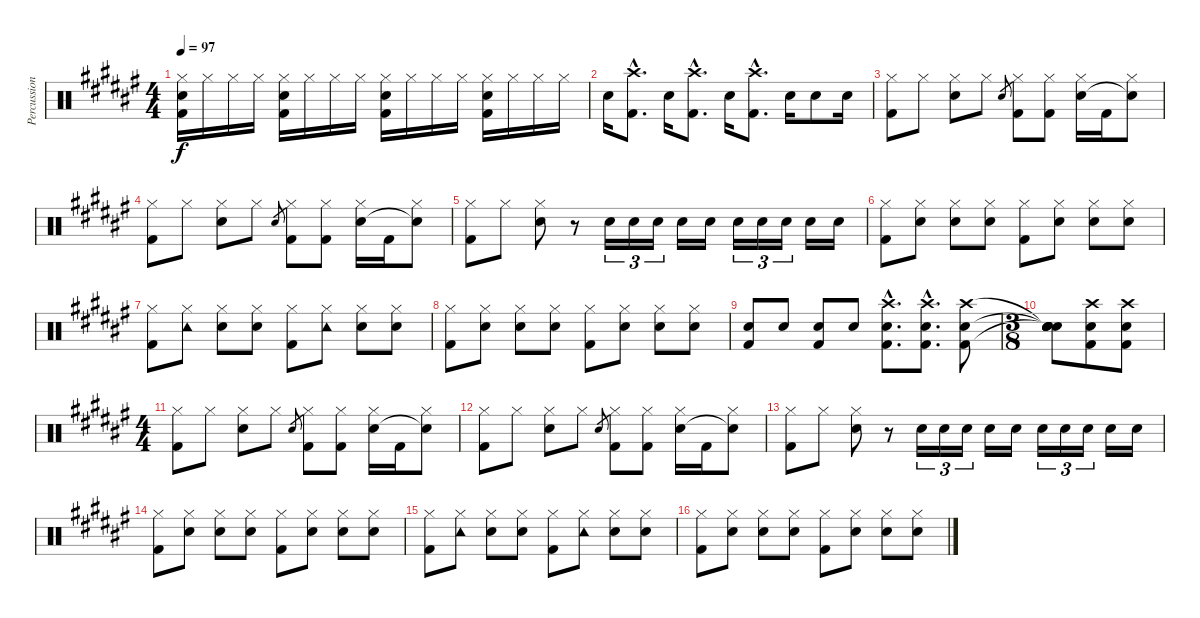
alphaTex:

\track ("Percussion (John Bonham)" "Percussion") {instrument percussion}
\staff {score}
\articulation defaults
\ts (4 4)
\tempo 97
\clef neutral
\ks f#
("Hi-Hat (closed)" "Snare (hit) 2" "Kick (hit) 2").16{dy f} "Hi-Hat (closed)".16 "Hi-Hat (closed)".16 "Hi-Hat (closed)".16 ("Hi-Hat (closed)" "Snare (hit) 2" "Kick (hit) 2").16 "Hi-Hat (closed)".16 "Hi-Hat (closed)".16 "Hi-Hat (closed)".16 ("Hi-Hat (closed)" "Snare (hit) 2" "Kick (hit) 2").16 "Hi-Hat (closed)".16 "Hi-Hat (closed)".16 "Hi-Hat (closed)".16 ("Hi-Hat (closed)" "Snare (hit) 2" "Kick (hit) 2").16 "Hi-Hat (closed)".16 "Hi-Hat (closed)".16 "Hi-Hat (closed)".16 |
"Snare (hit) 2".16 ("Crash high (hit)"{hac} "Kick (hit) 2"{hac}).8{d} "Snare (hit) 2".16 ("Crash high (hit)"{hac} "Kick (hit) 2"{hac}).8{d} "Snare (hit) 2".16 ("Crash high (hit)"{hac} "Kick (hit) 2"{hac}).8{d} "Snare (hit) 2".16 "Snare (hit) 2".8 "Snare (hit) 2".16 |
("Hi-Hat (closed)" "Kick (hit) 2").8 "Hi-Hat (closed)".8 ("Hi-Hat (closed)" "Snare (hit) 2").8 "Hi-Hat (closed)".8 "Snare (hit) 2".8{gr} ("Hi-Hat (closed)" "Kick (hit) 2").8 ("Hi-Hat (closed)" "Kick (hit) 2").8 ("Hi-Hat (closed)" "Snare (hit) 2").16 "Kick (hit) 2".16 ("Hi-Hat (closed)" "Snare (hit)"{t}).8 |
("Hi-Hat (closed)" "Kick (hit) 2").8 "Hi-Hat (closed)".8 ("Hi-Hat (closed)" "Snare (hit) 2").8 "Hi-Hat (closed)".8 "Snare (hit) 2".8{gr} ("Hi-Hat (closed)" "Kick (hit) 2").8 ("Hi-Hat (closed)" "Kick (hit) 2").8 ("Hi-Hat (closed)" "Snare (hit) 2").16 "Kick (hit) 2".16 ("Hi-Hat (closed)" "Snare (hit)"{t}).8 |
("Hi-Hat (closed)" "Kick (hit) 2").8 "Hi-Hat (closed)".8 ("Hi-Hat (closed)" "Snare (hit) 2").8 r.8 "Snare (hit) 2".16{tu (3 2)} "Snare (hit) 2".16{tu (3 2)} "Snare (hit) 2".16{tu (3 2)} "Snare (hit) 2".16 "Snare (hit) 2".16 "Snare (hit) 2".16{tu (3 2)} "Snare (hit) 2".16{tu (3 2)} "Snare (hit) 2".16{tu (3 2)} "Snare (hit) 2".16 "Snare (hit) 2".16 |
("Hi-Hat (closed)" "Kick (hit) 2").8 ("Hi-Hat (closed)" "Snare (hit) 2").8 ("Hi-Hat (closed)" "Snare (hit) 2").8 ("Hi-Hat (closed)" "Snare (hit) 2").8 ("Hi-Hat (closed)" "Kick (hit) 2").8 ("Hi-Hat (closed)" "Snare (hit) 2").8 ("Hi-Hat (closed)" "Snare (hit) 2").8 ("Hi-Hat (closed)" "Snare (hit) 2").8 |
("Hi-Hat (closed)" "Kick (hit) 2").8 ("Hi-Hat (closed)" "Tambourine (hit)").8 ("Hi-Hat (closed)" "Snare (hit) 2").8 ("Hi-Hat (closed)" "Snare (hit) 2").8 ("Hi-Hat (closed)" "Kick (hit) 2").8 ("Hi-Hat (closed)" "Tambourine (hit)").8 ("Hi-Hat (closed)" "Snare (hit) 2").8 ("Hi-Hat (closed)" "Snare (hit) 2").8 |
("Hi-Hat (closed)" "Kick (hit) 2").8 ("Hi-Hat (closed)" "Snare (hit) 2").8 ("Hi-Hat (closed)" "Snare (hit) 2").8 ("Hi-Hat (closed)" "Snare (hit) 2").8 ("Hi-Hat (closed)" "Kick (hit) 2").8 ("Hi-Hat (closed)" "Snare (hit) 2").8 ("Hi-Hat (closed)" "Snare (hit) 2").8 ("Hi-Hat (closed)" "Snare (hit) 2").8 |
("Snare (hit) 2" "Kick (hit) 2").8 "Snare (hit) 2".8 ("Snare (hit) 2" "Kick (hit) 2").8 "Snare (hit) 2".8 ("Crash high (hit)"{hac} "Snare (hit) 2"{hac} "Kick (hit) 2"{hac}).8{d} ("Crash high (hit)"{hac} "Snare (hit) 2"{hac} "Kick (hit) 2"{hac}).8{d} ("Crash high (hit)" "Snare (hit) 2" "Kick (hit) 2").8 |
\ts (3 8)
("Snare (hit)"{t} "Snare (hit)"{t} "Snare (hit)"{t} "Snare (hit)" "Snare (hit)").8 ("Crash high (hit)" "Snare (hit) 2" "Kick (hit) 2").8 ("Crash high (hit)" "Snare (hit) 2" "Kick (hit) 2").8 |
\ts (4 4)
("Hi-Hat (closed)" "Kick (hit) 2").8 "Hi-Hat (closed)".8 ("Hi-Hat (closed)" "Snare (hit) 2").8 "Hi-Hat (closed)".8 "Snare (hit) 2".8{gr} ("Hi-Hat (closed)" "Kick (hit) 2").8 ("Hi-Hat (closed)" "Kick (hit) 2").8 ("Hi-Hat (closed)" "Snare (hit) 2").16 "Kick (hit) 2".16 ("Hi-Hat (closed)" "Snare (hit)"{t}).8 |
("Hi-Hat (closed)" "Kick (hit) 2").8 "Hi-Hat (closed)".8 ("Hi-Hat (closed)" "Snare (hit) 2").8 "Hi-Hat (closed)".8 "Snare (hit) 2".8{gr} ("Hi-Hat (closed)" "Kick (hit) 2").8 ("Hi-Hat (closed)" "Kick (hit) 2").8 ("Hi-Hat (closed)" "Snare (hit) 2").16 "Kick (hit) 2".16 ("Hi-Hat (closed)" "Snare (hit)"{t}).8 |
("Hi-Hat (closed)" "Kick (hit) 2").8 "Hi-Hat (closed)".8 ("Hi-Hat (closed)" "Snare (hit) 2").8 r.8 "Snare (hit) 2".16{tu (3 2)} "Snare (hit) 2".16{tu (3 2)} "Snare (hit) 2".16{tu (3 2)} "Snare (hit) 2".16 "Snare (hit) 2".16 "Snare (hit) 2".16{tu (3 2)} "Snare (hit) 2".16{tu (3 2)} "Snare (hit) 2".16{tu (3 2)} "Snare (hit) 2".16 "Snare (hit) 2".16 |
("Hi-Hat (closed)" "Kick (hit) 2").8 ("Hi-Hat (closed)" "Snare (hit) 2").8 ("Hi-Hat (closed)" "Snare (hit) 2").8 ("Hi-Hat (closed)" "Snare (hit) 2").8 ("Hi-Hat (closed)" "Kick (hit) 2").8 ("Hi-Hat (closed)" "Snare (hit) 2").8 ("Hi-Hat (closed)" "Snare (hit) 2").8 ("Hi-Hat (closed)" "Snare (hit) 2").8 |
("Hi-Hat (closed)" "Kick (hit) 2").8 ("Hi-Hat (closed)" "Tambourine (hit)").8 ("Hi-Hat (closed)" "Snare (hit) 2").8 ("Hi-Hat (closed)" "Snare (hit) 2").8 ("Hi-Hat (closed)" "Kick (hit) 2").8 ("Hi-Hat (closed)" "Tambourine (hit)").8 ("Hi-Hat (closed)" "Snare (hit) 2").8 ("Hi-Hat (closed)" "Snare (hit) 2").8 |
("Hi-Hat (closed)" "Kick (hit) 2").8 ("Hi-Hat (closed)" "Snare (hit) 2").8 ("Hi-Hat (closed)" "Snare (hit) 2").8 ("Hi-Hat (closed)" "Snare (hit) 2").8 ("Hi-Hat (closed)" "Kick (hit) 2").8 ("Hi-Hat (closed)" "Snare (hit) 2").8 ("Hi-Hat (closed)" "Snare (hit) 2").8 ("Hi-Hat (closed)" "Snare (hit) 2").8
